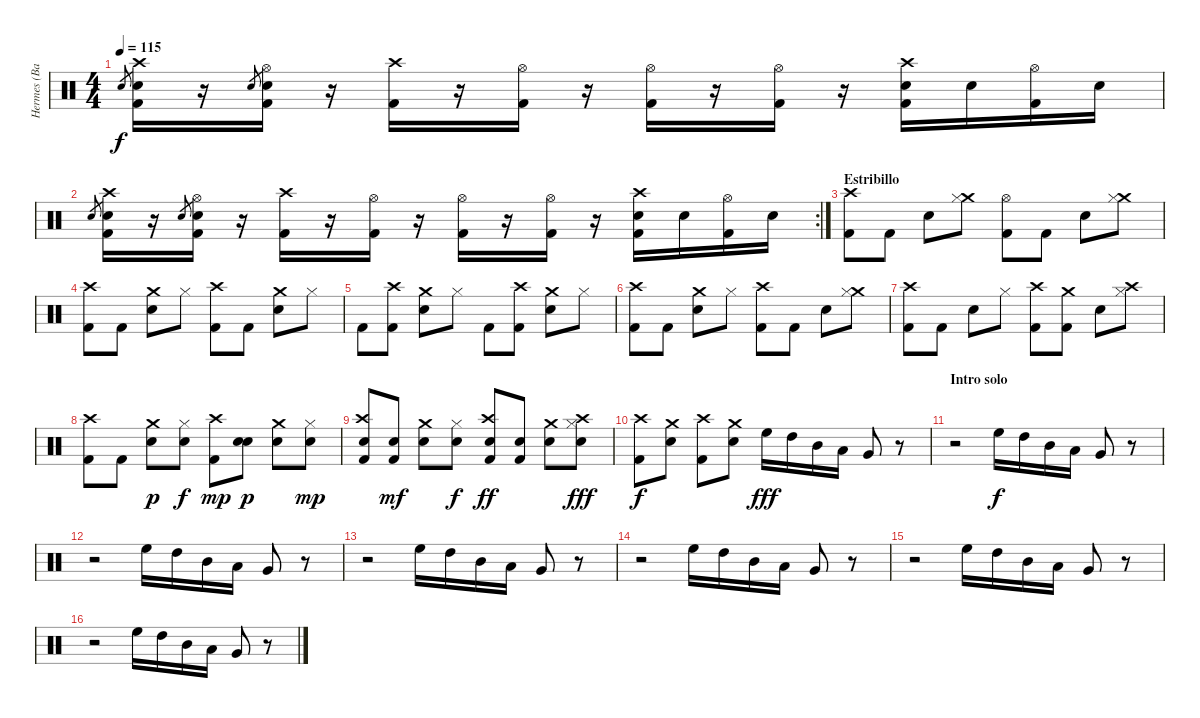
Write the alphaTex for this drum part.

\track ("Hermes (Bateria)" "Hermes (Ba") {instrument percussion}
\staff {score}
\articulation defaults
\ts (4 4)
\tempo 115
\clef neutral
\ks c "Snare (hit) 2".8{gr dy f}
("Crash high (hit)" "Snare (hit) 2" "Kick (hit) 2").16 r.16 "Snare (hit) 2".8{gr} ("Hi-Hat (open)" "Snare (hit) 2" "Kick (hit) 2").16 r.16 ("Crash high (hit)" "Kick (hit) 2").16 r.16 ("Hi-Hat (open)" "Kick (hit) 2").16 r.16 ("Hi-Hat (open)" "Kick (hit) 2").16 r.16 ("Hi-Hat (open)" "Kick (hit) 2").16 r.16 ("Crash high (hit)" "Snare (hit) 2" "Kick (hit) 2").16 "Snare (hit) 2".16 ("Hi-Hat (open)" "Kick (hit) 2").16 "Snare (hit) 2".16 |
\rc 2 "Snare (hit) 2".8{gr}
("Crash high (hit)" "Snare (hit) 2" "Kick (hit) 2").16 r.16 "Snare (hit) 2".8{gr} ("Hi-Hat (open)" "Snare (hit) 2" "Kick (hit) 2").16 r.16 ("Crash high (hit)" "Kick (hit) 2").16 r.16 ("Hi-Hat (open)" "Kick (hit) 2").16 r.16 ("Hi-Hat (open)" "Kick (hit) 2").16 r.16 ("Hi-Hat (open)" "Kick (hit) 2").16 r.16 ("Crash high (hit)" "Snare (hit) 2" "Kick (hit) 2").16 "Snare (hit) 2".16 ("Hi-Hat (open)" "Kick (hit) 2").16 "Snare (hit) 2".16 |
\section ("" "Estribillo")
("Crash high (hit)" "Kick (hit) 2").8 "Kick (hit) 2".8 "Snare (hit) 2".8 ("Crash medium (hit)" "Hi-Hat (closed)").8 ("Hi-Hat (open)" "Kick (hit) 2").8 "Kick (hit) 2".8 "Snare (hit) 2".8 ("Crash medium (hit)" "Hi-Hat (closed)").8 |
("Crash high (hit)" "Kick (hit) 2").8 "Kick (hit) 2".8 ("Crash medium (hit)" "Snare (hit) 2").8 "Hi-Hat (closed)".8 ("Crash high (hit)" "Kick (hit) 2").8 "Kick (hit) 2".8 ("Crash medium (hit)" "Snare (hit) 2").8 "Hi-Hat (closed)".8 |
"Kick (hit) 2".8 ("Crash high (hit)" "Kick (hit) 2").8 ("Crash medium (hit)" "Snare (hit) 2").8 "Hi-Hat (closed)".8 "Kick (hit) 2".8 ("Crash high (hit)" "Kick (hit) 2").8 ("Crash medium (hit)" "Snare (hit) 2").8 "Hi-Hat (closed)".8 |
("Crash high (hit)" "Kick (hit) 2").8 "Kick (hit) 2".8 ("Crash medium (hit)" "Snare (hit) 2").8 "Hi-Hat (closed)".8 ("Crash high (hit)" "Kick (hit) 2").8 "Kick (hit) 2".8 "Snare (hit) 2".8 ("Crash medium (hit)" "Hi-Hat (closed)").8 |
("Crash high (hit)" "Kick (hit) 2").8 "Kick (hit) 2".8 "Snare (hit) 2".8 "Hi-Hat (closed)".8 ("Crash high (hit)" "Kick (hit) 2").8 ("Crash medium (hit)" "Kick (hit) 2").8 "Snare (hit) 2".8 ("Crash high (hit)" "Hi-Hat (closed)").8 |
("Crash high (hit)" "Kick (hit) 2").8 "Kick (hit) 2".8 ("Crash medium (hit)" "Snare (hit) 2").8{dy p} ("Hi-Hat (closed)" "Snare (hit) 2").8{dy f} ("Crash high (hit)" "Kick (hit) 2").8{dy mp} ("Snare (hit) 2" "Snare (hit) 2").8{dy p} ("Crash medium (hit)" "Snare (hit) 2").8 ("Hi-Hat (closed)" "Snare (hit) 2").8{dy mp} |
("Crash high (hit)" "Snare (hit) 2" "Kick (hit) 2").8 ("Snare (hit) 2" "Kick (hit) 2").8{dy mf} ("Crash medium (hit)" "Snare (hit) 2").8 ("Hi-Hat (closed)" "Snare (hit) 2").8{dy f} ("Crash high (hit)" "Snare (hit) 2" "Kick (hit) 2").8{dy ff} ("Snare (hit) 2" "Kick (hit) 2").8 ("Crash medium (hit)" "Snare (hit) 2").8 ("Crash high (hit)" "Hi-Hat (closed)" "Snare (hit) 2").8{dy fff} |
("Crash high (hit)" "Kick (hit) 2").8{dy f} ("Crash medium (hit)" "Snare (hit) 2").8 ("Crash high (hit)" "Kick (hit) 2").8 ("Crash medium (hit)" "Snare (hit) 2").8 "High Floor Tom (hit)".16{dy fff} "High Tom (hit)".16 "Mid Tom (hit)".16 "Low Tom (hit)".16 "Very Low Tom (hit)".8 r.8 |
\section ("" "Intro solo")
r.2 "High Floor Tom (hit)".16{dy f} "High Tom (hit)".16 "Mid Tom (hit)".16 "Low Tom (hit)".16 "Very Low Tom (hit)".8 r.8 |
r.2 "High Floor Tom (hit)".16 "High Tom (hit)".16 "Mid Tom (hit)".16 "Low Tom (hit)".16 "Very Low Tom (hit)".8 r.8 |
r.2 "High Floor Tom (hit)".16 "High Tom (hit)".16 "Mid Tom (hit)".16 "Low Tom (hit)".16 "Very Low Tom (hit)".8 r.8 |
r.2 "High Floor Tom (hit)".16 "High Tom (hit)".16 "Mid Tom (hit)".16 "Low Tom (hit)".16 "Very Low Tom (hit)".8 r.8 |
r.2 "High Floor Tom (hit)".16 "High Tom (hit)".16 "Mid Tom (hit)".16 "Low Tom (hit)".16 "Very Low Tom (hit)".8 r.8 |
r.2 "High Floor Tom (hit)".16 "High Tom (hit)".16 "Mid Tom (hit)".16 "Low Tom (hit)".16 "Very Low Tom (hit)".8 r.8
